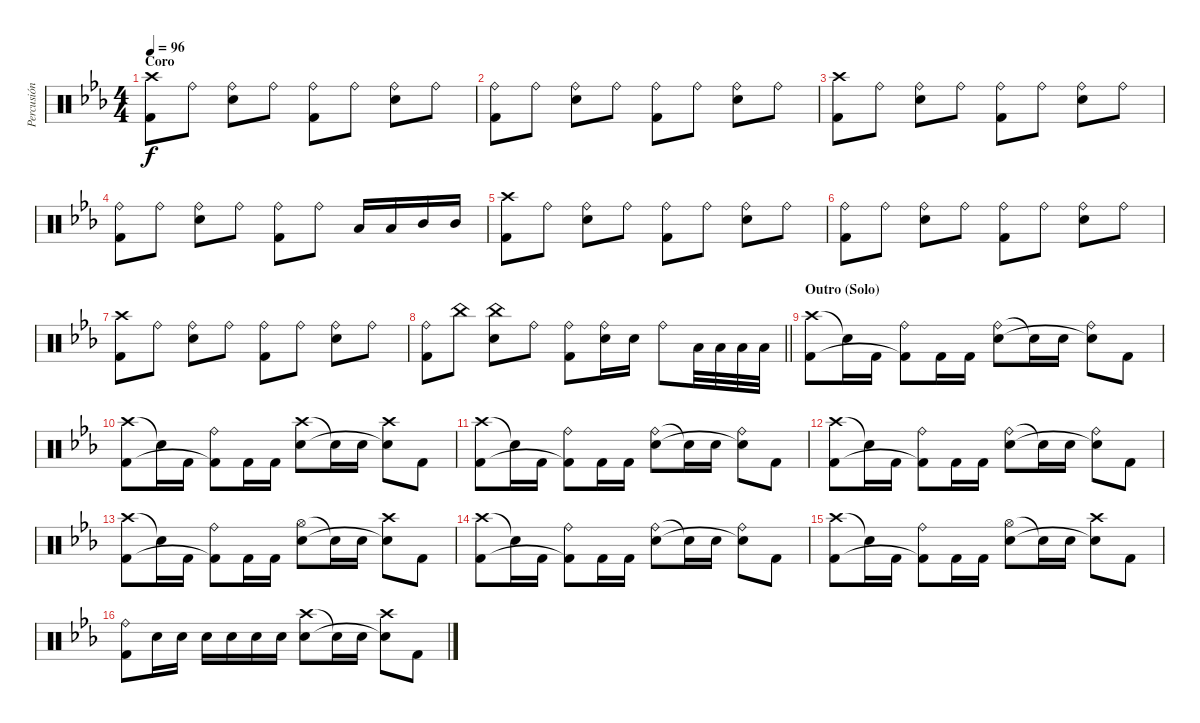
\track ("Percusión" "Percusión") {instrument percussion}
\staff {score}
\articulation defaults
\ts (4 4)
\section ("" "Coro")
\tempo 96
\clef neutral
\ks eb
("Crash high (hit)" "Kick (hit) 2").8{dy f} "Ride (bell)".8 ("Ride (bell)" "Electric Snare (hit)").8 "Ride (bell)".8 ("Ride (bell)" "Kick (hit) 2").8 "Ride (bell)".8 ("Ride (bell)" "Electric Snare (hit)").8 "Ride (bell)".8 |
("Ride (bell)" "Kick (hit) 2").8 "Ride (bell)".8 ("Ride (bell)" "Electric Snare (hit)").8 "Ride (bell)".8 ("Ride (bell)" "Kick (hit) 2").8 "Ride (bell)".8 ("Ride (bell)" "Electric Snare (hit)").8 "Ride (bell)".8 |
("Crash high (hit)" "Kick (hit) 2").8 "Ride (bell)".8 ("Ride (bell)" "Electric Snare (hit)").8 "Ride (bell)".8 ("Ride (bell)" "Kick (hit) 2").8 "Ride (bell)".8 ("Ride (bell)" "Electric Snare (hit)").8 "Ride (bell)".8 |
("Ride (bell)" "Kick (hit) 2").8 "Ride (bell)".8 ("Ride (bell)" "Electric Snare (hit)").8 "Ride (bell)".8 ("Ride (bell)" "Kick (hit) 2").8 "Ride (bell)".8 "Low Tom (hit)".16 "Low Tom (hit)".16 "Mid Tom (hit)".16 "Mid Tom (hit)".16 |
("Crash high (hit)" "Kick (hit) 2").8 "Ride (bell)".8 ("Ride (bell)" "Electric Snare (hit)").8 "Ride (bell)".8 ("Ride (bell)" "Kick (hit) 2").8 "Ride (bell)".8 ("Ride (bell)" "Electric Snare (hit)").8 "Ride (bell)".8 |
("Ride (bell)" "Kick (hit) 2").8 "Ride (bell)".8 ("Ride (bell)" "Electric Snare (hit)").8 "Ride (bell)".8 ("Ride (bell)" "Kick (hit) 2").8 "Ride (bell)".8 ("Ride (bell)" "Electric Snare (hit)").8 "Ride (bell)".8 |
("Crash high (hit)" "Kick (hit) 2").8 "Ride (bell)".8 ("Ride (bell)" "Electric Snare (hit)").8 "Ride (bell)".8 ("Ride (bell)" "Kick (hit) 2").8 "Ride (bell)".8 ("Ride (bell)" "Electric Snare (hit)").8 "Ride (bell)".8 |
\barLineRight lightlight
("Ride (bell)" "Kick (hit) 2").8 "China (hit)".8 ("China (hit)" "Electric Snare (hit)").8 "Ride (bell)".8 ("Ride (bell)" "Kick (hit) 2").8 ("Ride (bell)" "Electric Snare (hit)").16 "Electric Snare (hit)".16 "Ride (bell)".8 "Low Tom (hit)".32 "Low Tom (hit)".32 "Low Tom (hit)".32 "Low Tom (hit)".32 |
\section ("" "Outro (Solo)")
("Crash high (hit)" "Kick (hit) 2").8 "Snare (hit)"{t}.16 "Kick (hit) 2".16 ("Ride (bell)" "Kick (hit) 2"{t}).8 "Kick (hit) 2".16 "Kick (hit) 2".16 ("Ride (bell)" "Electric Snare (hit)").8 "Snare (hit)"{t}.16 "Electric Snare (hit)".16 ("Ride (bell)" "Snare (hit)"{t}).8 "Kick (hit) 2".8 |
("Crash high (hit)" "Kick (hit) 2").8 "Snare (hit)"{t}.16 "Kick (hit) 2".16 ("Ride (bell)" "Kick (hit) 2"{t}).8 "Kick (hit) 2".16 "Kick (hit) 2".16 ("Crash high (hit)" "Electric Snare (hit)").8 "Snare (hit)"{t}.16 "Electric Snare (hit)".16 ("Crash high (hit)" "Snare (hit)"{t}).8 "Kick (hit) 2".8 |
("Crash high (hit)" "Kick (hit) 2").8 "Snare (hit)"{t}.16 "Kick (hit) 2".16 ("Ride (bell)" "Kick (hit) 2"{t}).8 "Kick (hit) 2".16 "Kick (hit) 2".16 ("Ride (bell)" "Electric Snare (hit)").8 "Snare (hit)"{t}.16 "Electric Snare (hit)".16 ("Ride (bell)" "Snare (hit)"{t}).8 "Kick (hit) 2".8 |
("Crash high (hit)" "Kick (hit) 2").8 "Snare (hit)"{t}.16 "Kick (hit) 2".16 ("Ride (bell)" "Kick (hit) 2"{t}).8 "Kick (hit) 2".16 "Kick (hit) 2".16 ("Ride (bell)" "Electric Snare (hit)").8 "Snare (hit)"{t}.16 "Electric Snare (hit)".16 ("Ride (bell)" "Snare (hit)"{t}).8 "Kick (hit) 2".8 |
("Crash high (hit)" "Kick (hit) 2").8 "Snare (hit)"{t}.16 "Kick (hit) 2".16 ("Ride (bell)" "Kick (hit) 2"{t}).8 "Kick (hit) 2".16 "Kick (hit) 2".16 ("Hi-Hat (open)" "Electric Snare (hit)").8 "Snare (hit)"{t}.16 "Electric Snare (hit)".16 ("Crash high (hit)" "Snare (hit)"{t}).8 "Kick (hit) 2".8 |
("Crash high (hit)" "Kick (hit) 2").8 "Snare (hit)"{t}.16 "Kick (hit) 2".16 ("Ride (bell)" "Kick (hit) 2"{t}).8 "Kick (hit) 2".16 "Kick (hit) 2".16 ("Ride (bell)" "Electric Snare (hit)").8 "Snare (hit)"{t}.16 "Electric Snare (hit)".16 ("Ride (bell)" "Snare (hit)"{t}).8 "Kick (hit) 2".8 |
("Crash high (hit)" "Kick (hit) 2").8 "Snare (hit)"{t}.16 "Kick (hit) 2".16 ("Ride (bell)" "Kick (hit) 2"{t}).8 "Kick (hit) 2".16 "Kick (hit) 2".16 ("Hi-Hat (open)" "Electric Snare (hit)").8 "Snare (hit)"{t}.16 "Electric Snare (hit)".16 ("Crash high (hit)" "Snare (hit)"{t}).8 "Kick (hit) 2".8 |
("Ride (bell)" "Kick (hit) 2").8 "Electric Snare (hit)".16 "Electric Snare (hit)".16 "Electric Snare (hit)".16 "Electric Snare (hit)".16 "Electric Snare (hit)".16 "Electric Snare (hit)".16 ("Crash high (hit)" "Electric Snare (hit)").8 "Snare (hit)"{t}.16 "Electric Snare (hit)".16 ("Crash high (hit)" "Snare (hit)"{t}).8 "Kick (hit) 2".8
